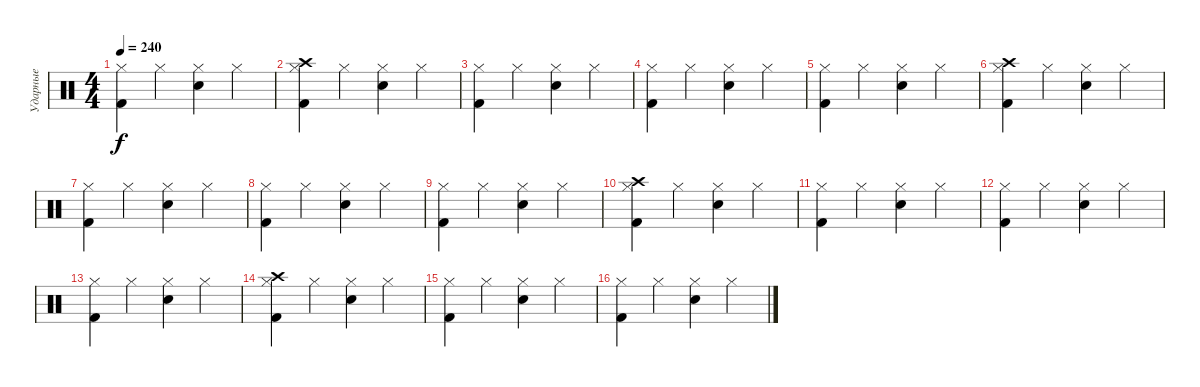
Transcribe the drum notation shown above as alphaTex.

\track ("Ударные" "Ударные") {instrument percussion}
\staff {score}
\articulation defaults
\ts (4 4)
\tempo 240
\clef neutral
\ks c
("Kick (hit) 2" "Hi-Hat (closed)").4{dy f} "Hi-Hat (closed)".4 ("Electric Snare (hit)" "Hi-Hat (closed)").4 "Hi-Hat (closed)".4 |
("Kick (hit) 2" "Hi-Hat (closed)" "Crash high (hit)").4 "Hi-Hat (closed)".4 ("Electric Snare (hit)" "Hi-Hat (closed)").4 "Hi-Hat (closed)".4 |
("Kick (hit) 2" "Hi-Hat (closed)").4 "Hi-Hat (closed)".4 ("Electric Snare (hit)" "Hi-Hat (closed)").4 "Hi-Hat (closed)".4 |
("Kick (hit) 2" "Hi-Hat (closed)").4 "Hi-Hat (closed)".4 ("Electric Snare (hit)" "Hi-Hat (closed)").4 "Hi-Hat (closed)".4 |
("Kick (hit) 2" "Hi-Hat (closed)").4 "Hi-Hat (closed)".4 ("Electric Snare (hit)" "Hi-Hat (closed)").4 "Hi-Hat (closed)".4 |
("Kick (hit) 2" "Hi-Hat (closed)" "Crash high (hit)").4 "Hi-Hat (closed)".4 ("Electric Snare (hit)" "Hi-Hat (closed)").4 "Hi-Hat (closed)".4 |
("Kick (hit) 2" "Hi-Hat (closed)").4 "Hi-Hat (closed)".4 ("Electric Snare (hit)" "Hi-Hat (closed)").4 "Hi-Hat (closed)".4 |
("Kick (hit) 2" "Hi-Hat (closed)").4 "Hi-Hat (closed)".4 ("Electric Snare (hit)" "Hi-Hat (closed)").4 "Hi-Hat (closed)".4 |
("Kick (hit) 2" "Hi-Hat (closed)").4 "Hi-Hat (closed)".4 ("Electric Snare (hit)" "Hi-Hat (closed)").4 "Hi-Hat (closed)".4 |
("Kick (hit) 2" "Hi-Hat (closed)" "Crash high (hit)").4 "Hi-Hat (closed)".4 ("Electric Snare (hit)" "Hi-Hat (closed)").4 "Hi-Hat (closed)".4 |
("Kick (hit) 2" "Hi-Hat (closed)").4 "Hi-Hat (closed)".4 ("Electric Snare (hit)" "Hi-Hat (closed)").4 "Hi-Hat (closed)".4 |
("Kick (hit) 2" "Hi-Hat (closed)").4 "Hi-Hat (closed)".4 ("Electric Snare (hit)" "Hi-Hat (closed)").4 "Hi-Hat (closed)".4 |
("Kick (hit) 2" "Hi-Hat (closed)").4 "Hi-Hat (closed)".4 ("Electric Snare (hit)" "Hi-Hat (closed)").4 "Hi-Hat (closed)".4 |
("Kick (hit) 2" "Hi-Hat (closed)" "Crash high (hit)").4 "Hi-Hat (closed)".4 ("Electric Snare (hit)" "Hi-Hat (closed)").4 "Hi-Hat (closed)".4 |
("Kick (hit) 2" "Hi-Hat (closed)").4 "Hi-Hat (closed)".4 ("Electric Snare (hit)" "Hi-Hat (closed)").4 "Hi-Hat (closed)".4 |
("Kick (hit) 2" "Hi-Hat (closed)").4 "Hi-Hat (closed)".4 ("Electric Snare (hit)" "Hi-Hat (closed)").4 "Hi-Hat (closed)".4
